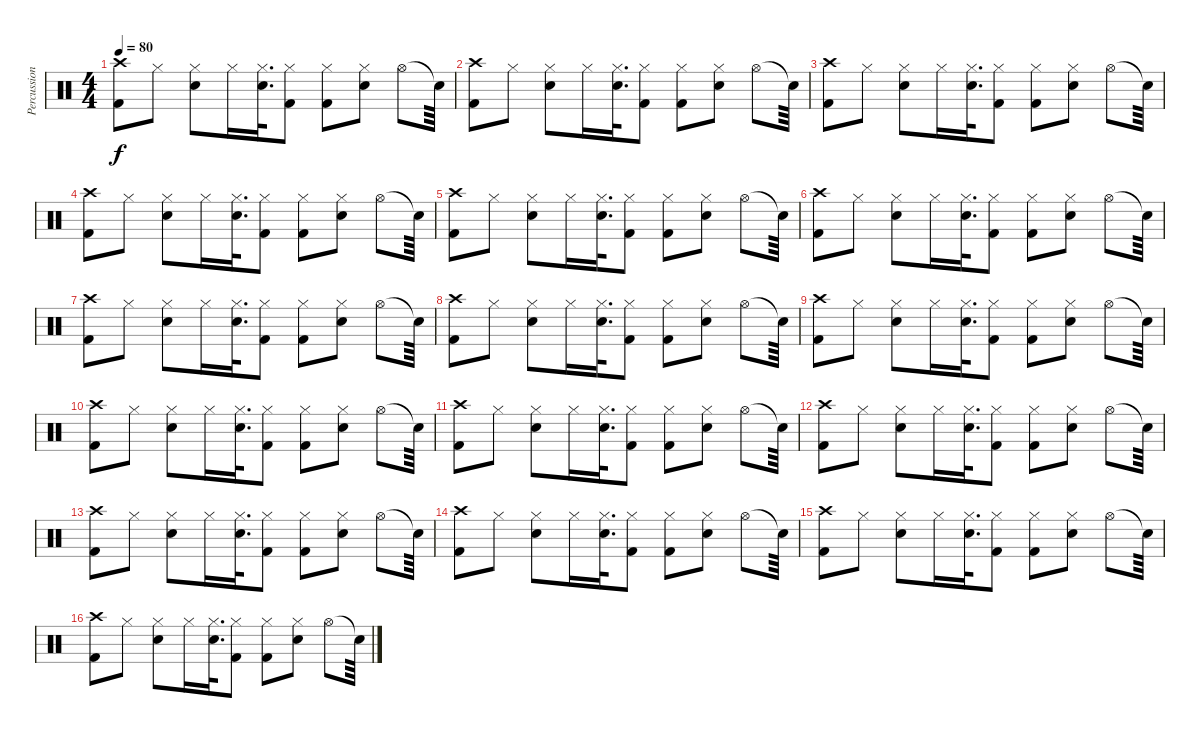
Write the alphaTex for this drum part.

\track ("Percussion" "Percussion") {instrument percussion}
\staff {score}
\articulation defaults
\ts (4 4)
\tempo 80
\clef neutral
\ks c
("Crash high (hit)" "Kick (hit) 2").8{dy f} "Hi-Hat (closed)".8 ("Hi-Hat (closed)" "Snare (hit) 2").8 "Hi-Hat (closed)".16 ("Hi-Hat (closed)" "Snare (hit) 2").32{d} ("Hi-Hat (closed)" "Kick (hit) 2").8 ("Hi-Hat (closed)" "Kick (hit) 2").8 ("Hi-Hat (closed)" "Snare (hit) 2").8 "Hi-Hat (open)".8 "Snare (hit)"{t}.64 |
("Crash high (hit)" "Kick (hit) 2").8 "Hi-Hat (closed)".8 ("Hi-Hat (closed)" "Snare (hit) 2").8 "Hi-Hat (closed)".16 ("Hi-Hat (closed)" "Snare (hit) 2").32{d} ("Hi-Hat (closed)" "Kick (hit) 2").8 ("Hi-Hat (closed)" "Kick (hit) 2").8 ("Hi-Hat (closed)" "Snare (hit) 2").8 "Hi-Hat (open)".8 "Snare (hit)"{t}.64 |
("Crash high (hit)" "Kick (hit) 2").8 "Hi-Hat (closed)".8 ("Hi-Hat (closed)" "Snare (hit) 2").8 "Hi-Hat (closed)".16 ("Hi-Hat (closed)" "Snare (hit) 2").32{d} ("Hi-Hat (closed)" "Kick (hit) 2").8 ("Hi-Hat (closed)" "Kick (hit) 2").8 ("Hi-Hat (closed)" "Snare (hit) 2").8 "Hi-Hat (open)".8 "Snare (hit)"{t}.64 |
("Crash high (hit)" "Kick (hit) 2").8 "Hi-Hat (closed)".8 ("Hi-Hat (closed)" "Snare (hit) 2").8 "Hi-Hat (closed)".16 ("Hi-Hat (closed)" "Snare (hit) 2").32{d} ("Hi-Hat (closed)" "Kick (hit) 2").8 ("Hi-Hat (closed)" "Kick (hit) 2").8 ("Hi-Hat (closed)" "Snare (hit) 2").8 "Hi-Hat (open)".8 "Snare (hit)"{t}.64 |
("Crash high (hit)" "Kick (hit) 2").8 "Hi-Hat (closed)".8 ("Hi-Hat (closed)" "Snare (hit) 2").8 "Hi-Hat (closed)".16 ("Hi-Hat (closed)" "Snare (hit) 2").32{d} ("Hi-Hat (closed)" "Kick (hit) 2").8 ("Hi-Hat (closed)" "Kick (hit) 2").8 ("Hi-Hat (closed)" "Snare (hit) 2").8 "Hi-Hat (open)".8 "Snare (hit)"{t}.64 |
("Crash high (hit)" "Kick (hit) 2").8 "Hi-Hat (closed)".8 ("Hi-Hat (closed)" "Snare (hit) 2").8 "Hi-Hat (closed)".16 ("Hi-Hat (closed)" "Snare (hit) 2").32{d} ("Hi-Hat (closed)" "Kick (hit) 2").8 ("Hi-Hat (closed)" "Kick (hit) 2").8 ("Hi-Hat (closed)" "Snare (hit) 2").8 "Hi-Hat (open)".8 "Snare (hit)"{t}.64 |
("Crash high (hit)" "Kick (hit) 2").8 "Hi-Hat (closed)".8 ("Hi-Hat (closed)" "Snare (hit) 2").8 "Hi-Hat (closed)".16 ("Hi-Hat (closed)" "Snare (hit) 2").32{d} ("Hi-Hat (closed)" "Kick (hit) 2").8 ("Hi-Hat (closed)" "Kick (hit) 2").8 ("Hi-Hat (closed)" "Snare (hit) 2").8 "Hi-Hat (open)".8 "Snare (hit)"{t}.64 |
("Crash high (hit)" "Kick (hit) 2").8 "Hi-Hat (closed)".8 ("Hi-Hat (closed)" "Snare (hit) 2").8 "Hi-Hat (closed)".16 ("Hi-Hat (closed)" "Snare (hit) 2").32{d} ("Hi-Hat (closed)" "Kick (hit) 2").8 ("Hi-Hat (closed)" "Kick (hit) 2").8 ("Hi-Hat (closed)" "Snare (hit) 2").8 "Hi-Hat (open)".8 "Snare (hit)"{t}.64 |
("Crash high (hit)" "Kick (hit) 2").8 "Hi-Hat (closed)".8 ("Hi-Hat (closed)" "Snare (hit) 2").8 "Hi-Hat (closed)".16 ("Hi-Hat (closed)" "Snare (hit) 2").32{d} ("Hi-Hat (closed)" "Kick (hit) 2").8 ("Hi-Hat (closed)" "Kick (hit) 2").8 ("Hi-Hat (closed)" "Snare (hit) 2").8 "Hi-Hat (open)".8 "Snare (hit)"{t}.64 |
("Crash high (hit)" "Kick (hit) 2").8 "Hi-Hat (closed)".8 ("Hi-Hat (closed)" "Snare (hit) 2").8 "Hi-Hat (closed)".16 ("Hi-Hat (closed)" "Snare (hit) 2").32{d} ("Hi-Hat (closed)" "Kick (hit) 2").8 ("Hi-Hat (closed)" "Kick (hit) 2").8 ("Hi-Hat (closed)" "Snare (hit) 2").8 "Hi-Hat (open)".8 "Snare (hit)"{t}.64 |
("Crash high (hit)" "Kick (hit) 2").8 "Hi-Hat (closed)".8 ("Hi-Hat (closed)" "Snare (hit) 2").8 "Hi-Hat (closed)".16 ("Hi-Hat (closed)" "Snare (hit) 2").32{d} ("Hi-Hat (closed)" "Kick (hit) 2").8 ("Hi-Hat (closed)" "Kick (hit) 2").8 ("Hi-Hat (closed)" "Snare (hit) 2").8 "Hi-Hat (open)".8 "Snare (hit)"{t}.64 |
("Crash high (hit)" "Kick (hit) 2").8 "Hi-Hat (closed)".8 ("Hi-Hat (closed)" "Snare (hit) 2").8 "Hi-Hat (closed)".16 ("Hi-Hat (closed)" "Snare (hit) 2").32{d} ("Hi-Hat (closed)" "Kick (hit) 2").8 ("Hi-Hat (closed)" "Kick (hit) 2").8 ("Hi-Hat (closed)" "Snare (hit) 2").8 "Hi-Hat (open)".8 "Snare (hit)"{t}.64 |
("Crash high (hit)" "Kick (hit) 2").8 "Hi-Hat (closed)".8 ("Hi-Hat (closed)" "Snare (hit) 2").8 "Hi-Hat (closed)".16 ("Hi-Hat (closed)" "Snare (hit) 2").32{d} ("Hi-Hat (closed)" "Kick (hit) 2").8 ("Hi-Hat (closed)" "Kick (hit) 2").8 ("Hi-Hat (closed)" "Snare (hit) 2").8 "Hi-Hat (open)".8 "Snare (hit)"{t}.64 |
("Crash high (hit)" "Kick (hit) 2").8 "Hi-Hat (closed)".8 ("Hi-Hat (closed)" "Snare (hit) 2").8 "Hi-Hat (closed)".16 ("Hi-Hat (closed)" "Snare (hit) 2").32{d} ("Hi-Hat (closed)" "Kick (hit) 2").8 ("Hi-Hat (closed)" "Kick (hit) 2").8 ("Hi-Hat (closed)" "Snare (hit) 2").8 "Hi-Hat (open)".8 "Snare (hit)"{t}.64 |
("Crash high (hit)" "Kick (hit) 2").8 "Hi-Hat (closed)".8 ("Hi-Hat (closed)" "Snare (hit) 2").8 "Hi-Hat (closed)".16 ("Hi-Hat (closed)" "Snare (hit) 2").32{d} ("Hi-Hat (closed)" "Kick (hit) 2").8 ("Hi-Hat (closed)" "Kick (hit) 2").8 ("Hi-Hat (closed)" "Snare (hit) 2").8 "Hi-Hat (open)".8 "Snare (hit)"{t}.64 |
("Crash high (hit)" "Kick (hit) 2").8 "Hi-Hat (closed)".8 ("Hi-Hat (closed)" "Snare (hit) 2").8 "Hi-Hat (closed)".16 ("Hi-Hat (closed)" "Snare (hit) 2").32{d} ("Hi-Hat (closed)" "Kick (hit) 2").8 ("Hi-Hat (closed)" "Kick (hit) 2").8 ("Hi-Hat (closed)" "Snare (hit) 2").8 "Hi-Hat (open)".8 "Snare (hit)"{t}.64
